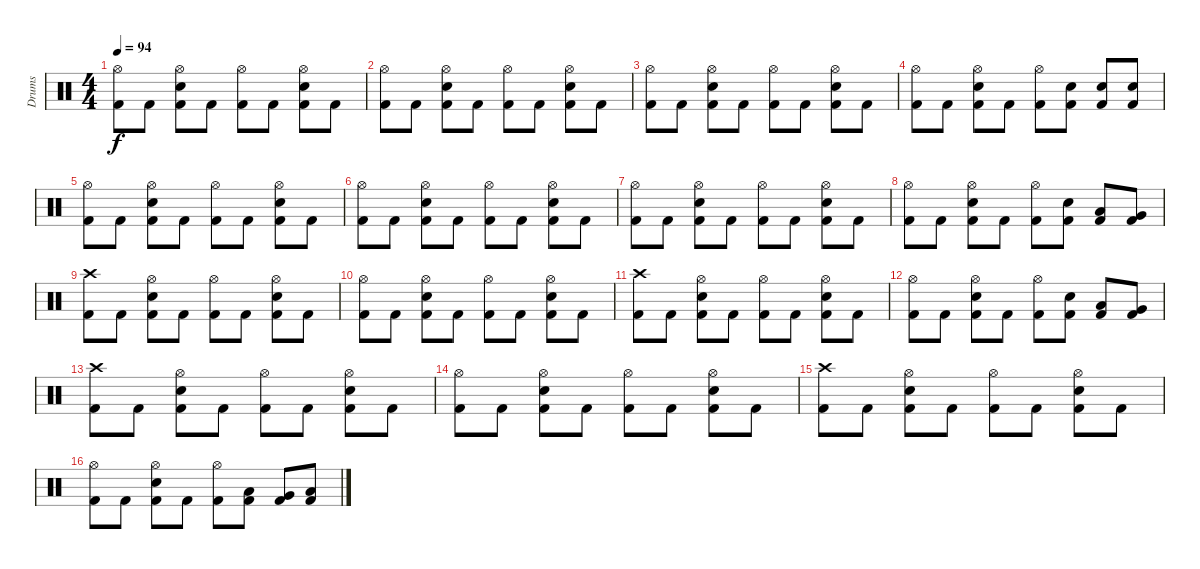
\track ("Drums" "Drums") {instrument percussion}
\staff {score}
\articulation defaults
\ts (4 4)
\tempo 94
\clef neutral
\ks c
("Hi-Hat (open)" "Kick (hit) 2").8{dy f} "Kick (hit) 2".8 ("Hi-Hat (open)" "Snare (hit) 2" "Kick (hit) 2").8 "Kick (hit) 2".8 ("Hi-Hat (open)" "Kick (hit) 2").8 "Kick (hit) 2".8 ("Hi-Hat (open)" "Snare (hit) 2" "Kick (hit) 2").8 "Kick (hit) 2".8 |
("Hi-Hat (open)" "Kick (hit) 2").8 "Kick (hit) 2".8 ("Hi-Hat (open)" "Snare (hit) 2" "Kick (hit) 2").8 "Kick (hit) 2".8 ("Hi-Hat (open)" "Kick (hit) 2").8 "Kick (hit) 2".8 ("Hi-Hat (open)" "Snare (hit) 2" "Kick (hit) 2").8 "Kick (hit) 2".8 |
("Hi-Hat (open)" "Kick (hit) 2").8 "Kick (hit) 2".8 ("Hi-Hat (open)" "Snare (hit) 2" "Kick (hit) 2").8 "Kick (hit) 2".8 ("Hi-Hat (open)" "Kick (hit) 2").8 "Kick (hit) 2".8 ("Hi-Hat (open)" "Snare (hit) 2" "Kick (hit) 2").8 "Kick (hit) 2".8 |
("Hi-Hat (open)" "Kick (hit) 2").8 "Kick (hit) 2".8 ("Hi-Hat (open)" "Snare (hit) 2" "Kick (hit) 2").8 "Kick (hit) 2".8 ("Hi-Hat (open)" "Kick (hit) 2").8 ("Snare (hit) 2" "Kick (hit) 2").8 ("Snare (hit) 2" "Kick (hit) 2").8 ("Snare (hit) 2" "Kick (hit) 2").8 |
("Hi-Hat (open)" "Kick (hit) 2").8 "Kick (hit) 2".8 ("Hi-Hat (open)" "Snare (hit) 2" "Kick (hit) 2").8 "Kick (hit) 2".8 ("Hi-Hat (open)" "Kick (hit) 2").8 "Kick (hit) 2".8 ("Hi-Hat (open)" "Snare (hit) 2" "Kick (hit) 2").8 "Kick (hit) 2".8 |
("Hi-Hat (open)" "Kick (hit) 2").8 "Kick (hit) 2".8 ("Hi-Hat (open)" "Snare (hit) 2" "Kick (hit) 2").8 "Kick (hit) 2".8 ("Hi-Hat (open)" "Kick (hit) 2").8 "Kick (hit) 2".8 ("Hi-Hat (open)" "Snare (hit) 2" "Kick (hit) 2").8 "Kick (hit) 2".8 |
("Hi-Hat (open)" "Kick (hit) 2").8 "Kick (hit) 2".8 ("Hi-Hat (open)" "Snare (hit) 2" "Kick (hit) 2").8 "Kick (hit) 2".8 ("Hi-Hat (open)" "Kick (hit) 2").8 "Kick (hit) 2".8 ("Hi-Hat (open)" "Snare (hit) 2" "Kick (hit) 2").8 "Kick (hit) 2".8 |
("Hi-Hat (open)" "Kick (hit) 2").8 "Kick (hit) 2".8 ("Hi-Hat (open)" "Snare (hit) 2" "Kick (hit) 2").8 "Kick (hit) 2".8 ("Hi-Hat (open)" "Kick (hit) 2").8 ("Snare (hit) 2" "Kick (hit) 2").8 ("Low Tom (hit)" "Kick (hit) 2").8 ("Very Low Tom (hit)" "Kick (hit) 2").8 |
("Crash high (hit)" "Kick (hit) 2").8 "Kick (hit) 2".8 ("Hi-Hat (open)" "Snare (hit) 2" "Kick (hit) 2").8 "Kick (hit) 2".8 ("Hi-Hat (open)" "Kick (hit) 2").8 "Kick (hit) 2".8 ("Hi-Hat (open)" "Snare (hit) 2" "Kick (hit) 2").8 "Kick (hit) 2".8 |
("Hi-Hat (open)" "Kick (hit) 2").8 "Kick (hit) 2".8 ("Hi-Hat (open)" "Snare (hit) 2" "Kick (hit) 2").8 "Kick (hit) 2".8 ("Hi-Hat (open)" "Kick (hit) 2").8 "Kick (hit) 2".8 ("Hi-Hat (open)" "Snare (hit) 2" "Kick (hit) 2").8 "Kick (hit) 2".8 |
("Crash high (hit)" "Kick (hit) 2").8 "Kick (hit) 2".8 ("Hi-Hat (open)" "Snare (hit) 2" "Kick (hit) 2").8 "Kick (hit) 2".8 ("Hi-Hat (open)" "Kick (hit) 2").8 "Kick (hit) 2".8 ("Hi-Hat (open)" "Snare (hit) 2" "Kick (hit) 2").8 "Kick (hit) 2".8 |
("Hi-Hat (open)" "Kick (hit) 2").8 "Kick (hit) 2".8 ("Hi-Hat (open)" "Snare (hit) 2" "Kick (hit) 2").8 "Kick (hit) 2".8 ("Hi-Hat (open)" "Kick (hit) 2").8 ("Snare (hit) 2" "Kick (hit) 2").8 ("Low Tom (hit)" "Kick (hit) 2").8 ("Very Low Tom (hit)" "Kick (hit) 2").8 |
("Crash high (hit)" "Kick (hit) 2").8 "Kick (hit) 2".8 ("Hi-Hat (open)" "Snare (hit) 2" "Kick (hit) 2").8 "Kick (hit) 2".8 ("Hi-Hat (open)" "Kick (hit) 2").8 "Kick (hit) 2".8 ("Hi-Hat (open)" "Snare (hit) 2" "Kick (hit) 2").8 "Kick (hit) 2".8 |
("Hi-Hat (open)" "Kick (hit) 2").8 "Kick (hit) 2".8 ("Hi-Hat (open)" "Snare (hit) 2" "Kick (hit) 2").8 "Kick (hit) 2".8 ("Hi-Hat (open)" "Kick (hit) 2").8 "Kick (hit) 2".8 ("Hi-Hat (open)" "Snare (hit) 2" "Kick (hit) 2").8 "Kick (hit) 2".8 |
("Crash high (hit)" "Kick (hit) 2").8 "Kick (hit) 2".8 ("Hi-Hat (open)" "Snare (hit) 2" "Kick (hit) 2").8 "Kick (hit) 2".8 ("Hi-Hat (open)" "Kick (hit) 2").8 "Kick (hit) 2".8 ("Hi-Hat (open)" "Snare (hit) 2" "Kick (hit) 2").8 "Kick (hit) 2".8 |
("Hi-Hat (open)" "Kick (hit) 2").8 "Kick (hit) 2".8 ("Hi-Hat (open)" "Snare (hit) 2" "Kick (hit) 2").8 "Kick (hit) 2".8 ("Hi-Hat (open)" "Kick (hit) 2").8 ("Low Tom (hit)" "Kick (hit) 2").8 ("Very Low Tom (hit)" "Kick (hit) 2").8 ("Low Floor Tom (hit)" "Kick (hit) 2").8
